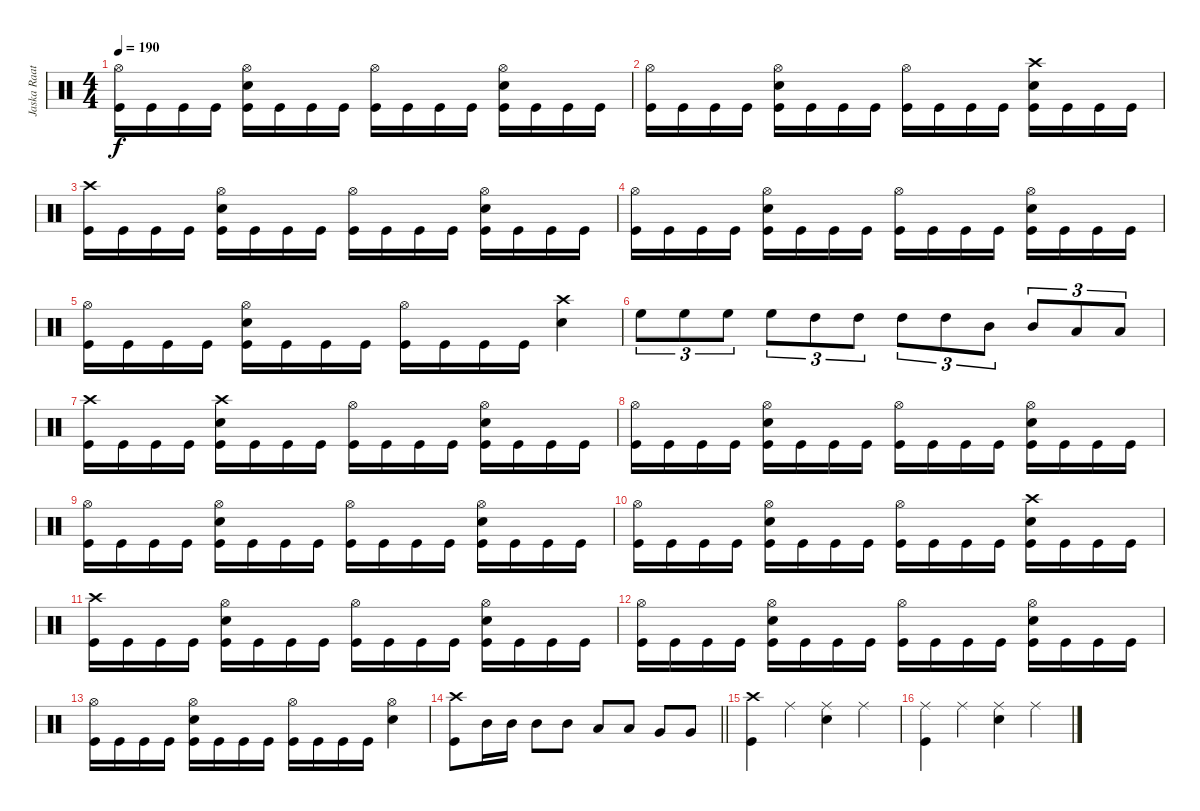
\track ("Jaska Raatikainen" "Jaska Raat") {instrument percussion}
\staff {score}
\articulation defaults
\ts (4 4)
\tempo 190
\clef neutral
\ks c
("Hi-Hat (open)" "Kick (hit)").16{dy f} "Kick (hit)".16 "Kick (hit)".16 "Kick (hit)".16 ("Hi-Hat (open)" "Snare (hit) 2" "Kick (hit)").16 "Kick (hit)".16 "Kick (hit)".16 "Kick (hit)".16 ("Hi-Hat (open)" "Kick (hit)").16 "Kick (hit)".16 "Kick (hit)".16 "Kick (hit)".16 ("Hi-Hat (open)" "Snare (hit) 2" "Kick (hit)").16 "Kick (hit)".16 "Kick (hit)".16 "Kick (hit)".16 |
("Hi-Hat (open)" "Kick (hit)").16 "Kick (hit)".16 "Kick (hit)".16 "Kick (hit)".16 ("Hi-Hat (open)" "Snare (hit) 2" "Kick (hit)").16 "Kick (hit)".16 "Kick (hit)".16 "Kick (hit)".16 ("Hi-Hat (open)" "Kick (hit)").16 "Kick (hit)".16 "Kick (hit)".16 "Kick (hit)".16 ("Crash high (hit)" "Snare (hit) 2" "Kick (hit)").16 "Kick (hit)".16 "Kick (hit)".16 "Kick (hit)".16 |
("Crash high (hit)" "Kick (hit)").16 "Kick (hit)".16 "Kick (hit)".16 "Kick (hit)".16 ("Hi-Hat (open)" "Snare (hit) 2" "Kick (hit)").16 "Kick (hit)".16 "Kick (hit)".16 "Kick (hit)".16 ("Hi-Hat (open)" "Kick (hit)").16 "Kick (hit)".16 "Kick (hit)".16 "Kick (hit)".16 ("Hi-Hat (open)" "Snare (hit) 2" "Kick (hit)").16 "Kick (hit)".16 "Kick (hit)".16 "Kick (hit)".16 |
("Hi-Hat (open)" "Kick (hit)").16 "Kick (hit)".16 "Kick (hit)".16 "Kick (hit)".16 ("Hi-Hat (open)" "Snare (hit) 2" "Kick (hit)").16 "Kick (hit)".16 "Kick (hit)".16 "Kick (hit)".16 ("Hi-Hat (open)" "Kick (hit)").16 "Kick (hit)".16 "Kick (hit)".16 "Kick (hit)".16 ("Hi-Hat (open)" "Snare (hit) 2" "Kick (hit)").16 "Kick (hit)".16 "Kick (hit)".16 "Kick (hit)".16 |
("Hi-Hat (open)" "Kick (hit)").16 "Kick (hit)".16 "Kick (hit)".16 "Kick (hit)".16 ("Hi-Hat (open)" "Snare (hit) 2" "Kick (hit)").16 "Kick (hit)".16 "Kick (hit)".16 "Kick (hit)".16 ("Hi-Hat (open)" "Kick (hit)").16 "Kick (hit)".16 "Kick (hit)".16 "Kick (hit)".16 ("Crash high (hit)" "Snare (hit) 2").4 |
"High Floor Tom (hit)".8{tu (3 2)} "High Floor Tom (hit)".8{tu (3 2)} "High Floor Tom (hit)".8{tu (3 2)} "High Floor Tom (hit)".8{tu (3 2)} "High Tom (hit)".8{tu (3 2)} "High Tom (hit)".8{tu (3 2)} "High Tom (hit)".8{tu (3 2)} "High Tom (hit)".8{tu (3 2)} "Mid Tom (hit)".8{tu (3 2)} "Mid Tom (hit)".8{tu (3 2)} "Low Tom (hit)".8{tu (3 2)} "Low Tom (hit)".8{tu (3 2)} |
("Crash high (hit)" "Kick (hit)").16 "Kick (hit)".16 "Kick (hit)".16 "Kick (hit)".16 ("Crash high (hit)" "Snare (hit) 2" "Kick (hit)").16 "Kick (hit)".16 "Kick (hit)".16 "Kick (hit)".16 ("Hi-Hat (open)" "Kick (hit)").16 "Kick (hit)".16 "Kick (hit)".16 "Kick (hit)".16 ("Hi-Hat (open)" "Snare (hit) 2" "Kick (hit)").16 "Kick (hit)".16 "Kick (hit)".16 "Kick (hit)".16 |
("Hi-Hat (open)" "Kick (hit)").16 "Kick (hit)".16 "Kick (hit)".16 "Kick (hit)".16 ("Hi-Hat (open)" "Snare (hit) 2" "Kick (hit)").16 "Kick (hit)".16 "Kick (hit)".16 "Kick (hit)".16 ("Hi-Hat (open)" "Kick (hit)").16 "Kick (hit)".16 "Kick (hit)".16 "Kick (hit)".16 ("Hi-Hat (open)" "Snare (hit) 2" "Kick (hit)").16 "Kick (hit)".16 "Kick (hit)".16 "Kick (hit)".16 |
("Hi-Hat (open)" "Kick (hit)").16 "Kick (hit)".16 "Kick (hit)".16 "Kick (hit)".16 ("Hi-Hat (open)" "Snare (hit) 2" "Kick (hit)").16 "Kick (hit)".16 "Kick (hit)".16 "Kick (hit)".16 ("Hi-Hat (open)" "Kick (hit)").16 "Kick (hit)".16 "Kick (hit)".16 "Kick (hit)".16 ("Hi-Hat (open)" "Snare (hit) 2" "Kick (hit)").16 "Kick (hit)".16 "Kick (hit)".16 "Kick (hit)".16 |
("Hi-Hat (open)" "Kick (hit)").16 "Kick (hit)".16 "Kick (hit)".16 "Kick (hit)".16 ("Hi-Hat (open)" "Snare (hit) 2" "Kick (hit)").16 "Kick (hit)".16 "Kick (hit)".16 "Kick (hit)".16 ("Hi-Hat (open)" "Kick (hit)").16 "Kick (hit)".16 "Kick (hit)".16 "Kick (hit)".16 ("Crash high (hit)" "Snare (hit) 2" "Kick (hit)").16 "Kick (hit)".16 "Kick (hit)".16 "Kick (hit)".16 |
("Crash high (hit)" "Kick (hit)").16 "Kick (hit)".16 "Kick (hit)".16 "Kick (hit)".16 ("Hi-Hat (open)" "Snare (hit) 2" "Kick (hit)").16 "Kick (hit)".16 "Kick (hit)".16 "Kick (hit)".16 ("Hi-Hat (open)" "Kick (hit)").16 "Kick (hit)".16 "Kick (hit)".16 "Kick (hit)".16 ("Hi-Hat (open)" "Snare (hit) 2" "Kick (hit)").16 "Kick (hit)".16 "Kick (hit)".16 "Kick (hit)".16 |
("Hi-Hat (open)" "Kick (hit)").16 "Kick (hit)".16 "Kick (hit)".16 "Kick (hit)".16 ("Hi-Hat (open)" "Snare (hit) 2" "Kick (hit)").16 "Kick (hit)".16 "Kick (hit)".16 "Kick (hit)".16 ("Hi-Hat (open)" "Kick (hit)").16 "Kick (hit)".16 "Kick (hit)".16 "Kick (hit)".16 ("Hi-Hat (open)" "Snare (hit) 2" "Kick (hit)").16 "Kick (hit)".16 "Kick (hit)".16 "Kick (hit)".16 |
("Hi-Hat (open)" "Kick (hit)").16 "Kick (hit)".16 "Kick (hit)".16 "Kick (hit)".16 ("Hi-Hat (open)" "Snare (hit) 2" "Kick (hit)").16 "Kick (hit)".16 "Kick (hit)".16 "Kick (hit)".16 ("Hi-Hat (open)" "Kick (hit)").16 "Kick (hit)".16 "Kick (hit)".16 "Kick (hit)".16 ("Hi-Hat (open)" "Snare (hit) 2").4 |
\barLineRight lightlight
("Crash high (hit)" "Kick (hit)").8 "Mid Tom (hit)".16 "Mid Tom (hit)".16 "Mid Tom (hit)".8 "Mid Tom (hit)".8 "Low Tom (hit)".8 "Low Tom (hit)".8 "Very Low Tom (hit)".8 "Very Low Tom (hit)".8 |
("Crash high (hit)" "Kick (hit)").4 "Ride (middle)".4 ("Ride (middle)" "Snare (hit) 2").4 "Ride (middle)".4 |
("Ride (middle)" "Kick (hit)").4 "Ride (middle)".4 ("Ride (middle)" "Snare (hit) 2").4 "Ride (middle)".4
